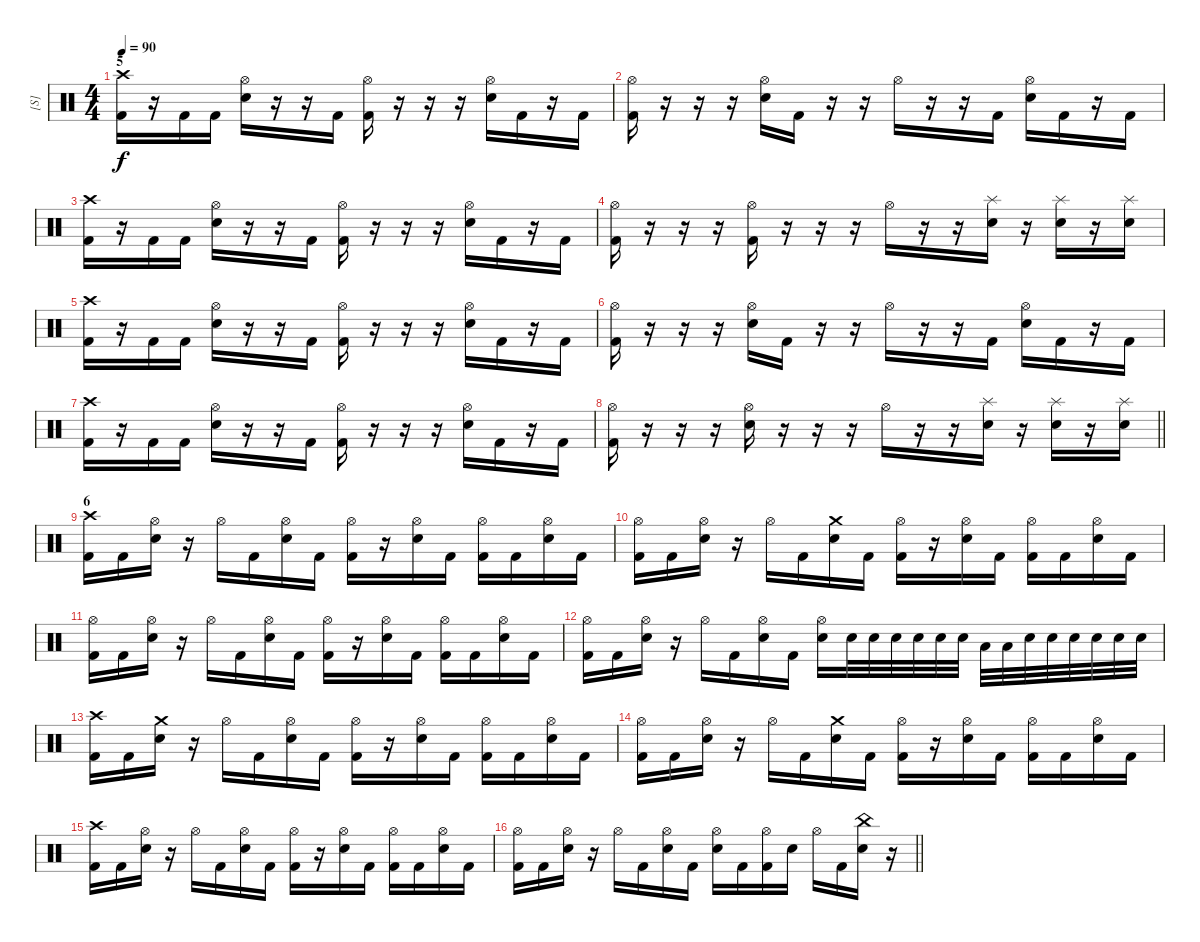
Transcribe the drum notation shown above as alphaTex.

\track ("[S]" "[S]") {instrument percussion}
\staff {score}
\articulation defaults
\ts (4 4)
\section ("" "5")
\tempo 90
\clef neutral
\ks c
("Crash high (hit)" "Kick (hit) 2").16{dy f} r.16 "Kick (hit) 2".16 "Kick (hit) 2".16 ("Hi-Hat (open)" "Electric Snare (hit)").16 r.16 r.16 "Kick (hit) 2".16 ("Hi-Hat (open)" "Kick (hit) 2").16 r.16 r.16 r.16 ("Hi-Hat (open)" "Electric Snare (hit)").16 "Kick (hit) 2".16 r.16 "Kick (hit) 2".16 |
("Hi-Hat (open)" "Kick (hit) 2").16 r.16 r.16 r.16 ("Hi-Hat (open)" "Electric Snare (hit)").16 "Kick (hit) 2".16 r.16 r.16 "Hi-Hat (open)".16 r.16 r.16 "Kick (hit) 2".16 ("Hi-Hat (open)" "Electric Snare (hit)").16 "Kick (hit) 2".16 r.16 "Kick (hit) 2".16 |
("Crash high (hit)" "Kick (hit) 2").16 r.16 "Kick (hit) 2".16 "Kick (hit) 2".16 ("Hi-Hat (open)" "Electric Snare (hit)").16 r.16 r.16 "Kick (hit) 2".16 ("Hi-Hat (open)" "Kick (hit) 2").16 r.16 r.16 r.16 ("Hi-Hat (open)" "Electric Snare (hit)").16 "Kick (hit) 2".16 r.16 "Kick (hit) 2".16 |
("Hi-Hat (open)" "Kick (hit) 2").16 r.16 r.16 r.16 ("Hi-Hat (open)" "Kick (hit) 2").16 r.16 r.16 r.16 "Hi-Hat (open)".16 r.16 r.16 ("Splash (hit)" "Electric Snare (hit)").16 r.16 ("Splash (hit)" "Electric Snare (hit)").16 r.16 ("Splash (hit)" "Electric Snare (hit)").16 |
("Crash high (hit)" "Kick (hit) 2").16 r.16 "Kick (hit) 2".16 "Kick (hit) 2".16 ("Hi-Hat (open)" "Electric Snare (hit)").16 r.16 r.16 "Kick (hit) 2".16 ("Hi-Hat (open)" "Kick (hit) 2").16 r.16 r.16 r.16 ("Hi-Hat (open)" "Electric Snare (hit)").16 "Kick (hit) 2".16 r.16 "Kick (hit) 2".16 |
("Hi-Hat (open)" "Kick (hit) 2").16 r.16 r.16 r.16 ("Hi-Hat (open)" "Electric Snare (hit)").16 "Kick (hit) 2".16 r.16 r.16 "Hi-Hat (open)".16 r.16 r.16 "Kick (hit) 2".16 ("Hi-Hat (open)" "Electric Snare (hit)").16 "Kick (hit) 2".16 r.16 "Kick (hit) 2".16 |
("Crash high (hit)" "Kick (hit) 2").16 r.16 "Kick (hit) 2".16 "Kick (hit) 2".16 ("Hi-Hat (open)" "Electric Snare (hit)").16 r.16 r.16 "Kick (hit) 2".16 ("Hi-Hat (open)" "Kick (hit) 2").16 r.16 r.16 r.16 ("Hi-Hat (open)" "Electric Snare (hit)").16 "Kick (hit) 2".16 r.16 "Kick (hit) 2".16 |
\barLineRight lightlight
("Hi-Hat (open)" "Kick (hit) 2").16 r.16 r.16 r.16 ("Hi-Hat (open)" "Electric Snare (hit)").16 r.16 r.16 r.16 "Hi-Hat (open)".16 r.16 r.16 ("Splash (hit)" "Electric Snare (hit)").16 r.16 ("Splash (hit)" "Electric Snare (hit)").16 r.16 ("Splash (hit)" "Electric Snare (hit)").16 |
\section ("" "6")
("Crash high (hit)" "Kick (hit) 2").16 "Kick (hit) 2".16 ("Hi-Hat (open)" "Electric Snare (hit)").16 r.16 "Hi-Hat (open)".16 "Kick (hit) 2".16 ("Hi-Hat (open)" "Electric Snare (hit)").16 "Kick (hit) 2".16 ("Hi-Hat (open)" "Kick (hit) 2").16 r.16 ("Hi-Hat (open)" "Electric Snare (hit)").16 "Kick (hit) 2".16 ("Hi-Hat (open)" "Kick (hit) 2").16 "Kick (hit) 2".16 ("Hi-Hat (open)" "Electric Snare (hit)").16 "Kick (hit) 2".16 |
("Hi-Hat (open)" "Kick (hit) 2").16 "Kick (hit) 2".16 ("Hi-Hat (open)" "Electric Snare (hit)").16 r.16 "Hi-Hat (open)".16 "Kick (hit) 2".16 ("Crash medium (hit)" "Electric Snare (hit)").16 "Kick (hit) 2".16 ("Hi-Hat (open)" "Kick (hit) 2").16 r.16 ("Hi-Hat (open)" "Electric Snare (hit)").16 "Kick (hit) 2".16 ("Hi-Hat (open)" "Kick (hit) 2").16 "Kick (hit) 2".16 ("Hi-Hat (open)" "Electric Snare (hit)").16 "Kick (hit) 2".16 |
("Hi-Hat (open)" "Kick (hit) 2").16 "Kick (hit) 2".16 ("Hi-Hat (open)" "Electric Snare (hit)").16 r.16 "Hi-Hat (open)".16 "Kick (hit) 2".16 ("Hi-Hat (open)" "Electric Snare (hit)").16 "Kick (hit) 2".16 ("Hi-Hat (open)" "Kick (hit) 2").16 r.16 ("Hi-Hat (open)" "Electric Snare (hit)").16 "Kick (hit) 2".16 ("Hi-Hat (open)" "Kick (hit) 2").16 "Kick (hit) 2".16 ("Hi-Hat (open)" "Electric Snare (hit)").16 "Kick (hit) 2".16 |
("Hi-Hat (open)" "Kick (hit) 2").16 "Kick (hit) 2".16 ("Hi-Hat (open)" "Electric Snare (hit)").16 r.16 "Hi-Hat (open)".16 "Kick (hit) 2".16 ("Hi-Hat (open)" "Electric Snare (hit)").16 "Kick (hit) 2".16 ("Hi-Hat (open)" "Electric Snare (hit)").16 "Electric Snare (hit)".32 "Electric Snare (hit)".32 "Electric Snare (hit)".32 "Electric Snare (hit)".32 "Electric Snare (hit)".32 "Electric Snare (hit)".32 "Low Tom (hit)".32 "Low Tom (hit)".32 "Electric Snare (hit)".32 "Electric Snare (hit)".32 "Electric Snare (hit)".32 "Electric Snare (hit)".32 "Electric Snare (hit)".32 "Electric Snare (hit)".32 |
("Crash high (hit)" "Kick (hit) 2").16 "Kick (hit) 2".16 ("Crash medium (hit)" "Electric Snare (hit)").16 r.16 "Hi-Hat (open)".16 "Kick (hit) 2".16 ("Hi-Hat (open)" "Electric Snare (hit)").16 "Kick (hit) 2".16 ("Hi-Hat (open)" "Kick (hit) 2").16 r.16 ("Hi-Hat (open)" "Electric Snare (hit)").16 "Kick (hit) 2".16 ("Hi-Hat (open)" "Kick (hit) 2").16 "Kick (hit) 2".16 ("Hi-Hat (open)" "Electric Snare (hit)").16 "Kick (hit) 2".16 |
("Hi-Hat (open)" "Kick (hit) 2").16 "Kick (hit) 2".16 ("Hi-Hat (open)" "Electric Snare (hit)").16 r.16 "Hi-Hat (open)".16 "Kick (hit) 2".16 ("Crash medium (hit)" "Electric Snare (hit)").16 "Kick (hit) 2".16 ("Hi-Hat (open)" "Kick (hit) 2").16 r.16 ("Hi-Hat (open)" "Electric Snare (hit)").16 "Kick (hit) 2".16 ("Hi-Hat (open)" "Kick (hit) 2").16 "Kick (hit) 2".16 ("Hi-Hat (open)" "Electric Snare (hit)").16 "Kick (hit) 2".16 |
("Crash high (hit)" "Kick (hit) 2").16 "Kick (hit) 2".16 ("Hi-Hat (open)" "Electric Snare (hit)").16 r.16 "Hi-Hat (open)".16 "Kick (hit) 2".16 ("Hi-Hat (open)" "Electric Snare (hit)").16 "Kick (hit) 2".16 ("Hi-Hat (open)" "Kick (hit) 2").16 r.16 ("Hi-Hat (open)" "Electric Snare (hit)").16 "Kick (hit) 2".16 ("Hi-Hat (open)" "Kick (hit) 2").16 "Kick (hit) 2".16 ("Hi-Hat (open)" "Electric Snare (hit)").16 "Kick (hit) 2".16 |
\barLineRight lightlight
("Hi-Hat (open)" "Kick (hit) 2").16 "Kick (hit) 2".16 ("Hi-Hat (open)" "Electric Snare (hit)").16 r.16 "Hi-Hat (open)".16 "Kick (hit) 2".16 ("Hi-Hat (open)" "Electric Snare (hit)").16 "Kick (hit) 2".16 ("Hi-Hat (open)" "Electric Snare (hit)").16 "Kick (hit) 2".16 ("Hi-Hat (open)" "Kick (hit) 2").16 "Electric Snare (hit)".16 "Hi-Hat (open)".16 "Kick (hit) 2".16 ("China (hit)" "Electric Snare (hit)").16 r.16
